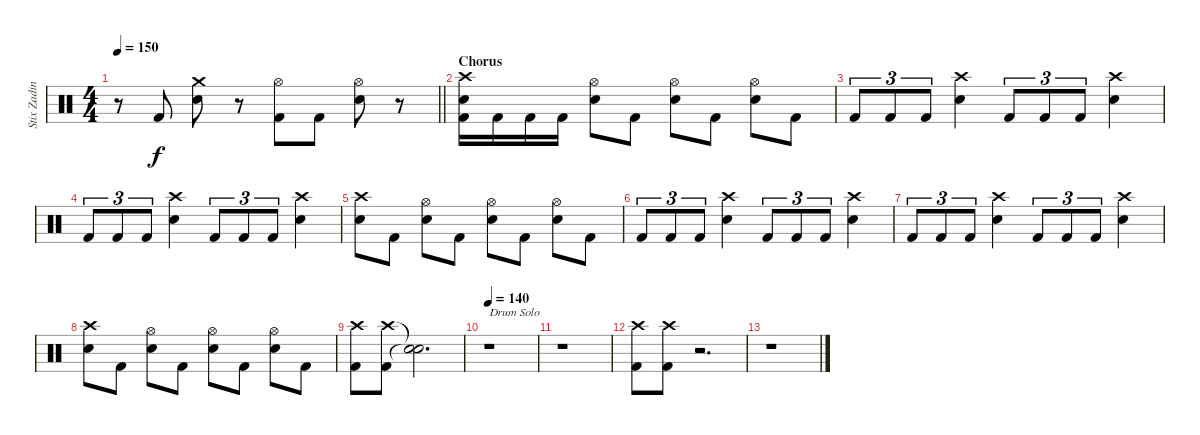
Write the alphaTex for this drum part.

\track ("Stix Zadinia" "Stix Zadin") {instrument percussion}
\staff {score}
\articulation defaults
\ts (4 4)
\tempo 150
\clef neutral
\barLineRight lightlight
\ks c
r.8{dy f} "Kick (hit) 2".8 ("Crash medium (hit)" "Electric Snare (hit)").8 r.8 ("Hi-Hat (open)" "Kick (hit) 2").8 "Kick (hit) 2".8 ("Hi-Hat (open)" "Electric Snare (hit)").8 r.8 |
\section ("" "Chorus")
("Crash high (hit)" "Electric Snare (hit)" "Kick (hit) 2").16 "Kick (hit) 2".16 "Kick (hit) 2".16 "Kick (hit) 2".16 ("Hi-Hat (open)" "Electric Snare (hit)").8 "Kick (hit) 2".8 ("Hi-Hat (open)" "Electric Snare (hit)").8 "Kick (hit) 2".8 ("Hi-Hat (open)" "Electric Snare (hit)").8 "Kick (hit) 2".8 |
"Kick (hit) 2".8{tu (3 2)} "Kick (hit) 2".8{tu (3 2)} "Kick (hit) 2".8{tu (3 2)} ("Crash high (hit)" "Electric Snare (hit)").4 "Kick (hit) 2".8{tu (3 2)} "Kick (hit) 2".8{tu (3 2)} "Kick (hit) 2".8{tu (3 2)} ("Crash high (hit)" "Electric Snare (hit)").4 |
"Kick (hit) 2".8{tu (3 2)} "Kick (hit) 2".8{tu (3 2)} "Kick (hit) 2".8{tu (3 2)} ("Crash high (hit)" "Electric Snare (hit)").4 "Kick (hit) 2".8{tu (3 2)} "Kick (hit) 2".8{tu (3 2)} "Kick (hit) 2".8{tu (3 2)} ("Crash high (hit)" "Electric Snare (hit)").4 |
("Crash high (hit)" "Electric Snare (hit)").8 "Kick (hit) 2".8 ("Hi-Hat (open)" "Electric Snare (hit)").8 "Kick (hit) 2".8 ("Hi-Hat (open)" "Electric Snare (hit)").8 "Kick (hit) 2".8 ("Hi-Hat (open)" "Electric Snare (hit)").8 "Kick (hit) 2".8 |
"Kick (hit) 2".8{tu (3 2)} "Kick (hit) 2".8{tu (3 2)} "Kick (hit) 2".8{tu (3 2)} ("Crash high (hit)" "Electric Snare (hit)").4 "Kick (hit) 2".8{tu (3 2)} "Kick (hit) 2".8{tu (3 2)} "Kick (hit) 2".8{tu (3 2)} ("Crash high (hit)" "Electric Snare (hit)").4 |
"Kick (hit) 2".8{tu (3 2)} "Kick (hit) 2".8{tu (3 2)} "Kick (hit) 2".8{tu (3 2)} ("Crash high (hit)" "Electric Snare (hit)").4 "Kick (hit) 2".8{tu (3 2)} "Kick (hit) 2".8{tu (3 2)} "Kick (hit) 2".8{tu (3 2)} ("Crash high (hit)" "Electric Snare (hit)").4 |
("Crash high (hit)" "Electric Snare (hit)").8 "Kick (hit) 2".8 ("Hi-Hat (open)" "Electric Snare (hit)").8 "Kick (hit) 2".8 ("Hi-Hat (open)" "Electric Snare (hit)").8 "Kick (hit) 2".8 ("Hi-Hat (open)" "Electric Snare (hit)").8 "Kick (hit) 2".8 |
("Crash high (hit)" "Kick (hit) 2").8 ("Crash high (hit)" "Kick (hit) 2").8 ("Snare (hit)"{t} "Snare (hit)"{t}).2{d} |
\tempo 135
\tempo 140
r.1{txt "Drum Solo"} |
r.1 |
("Crash high (hit)" "Kick (hit) 2").8 ("Crash high (hit)" "Kick (hit) 2").8 r.2{d} |
r.1
